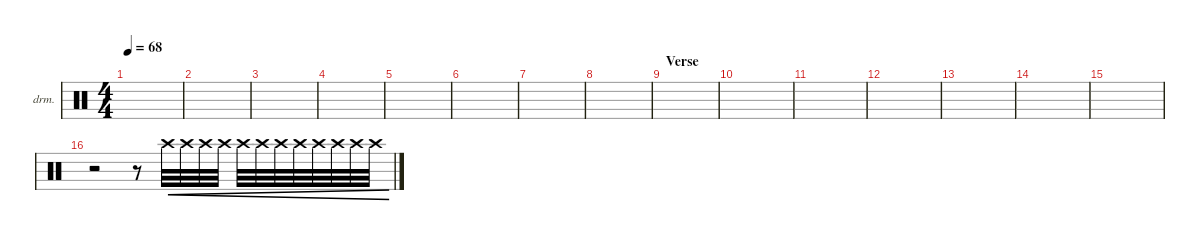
\defaultSystemsLayout 4
\hideDynamics
\bracketExtendMode nobrackets
\firstSystemTrackNameOrientation horizontal
\track ("Drumkit" "drm.") {defaultSystemsLayout 4 instrument percussion}
\staff {score}
\articulation defaults
\ts (4 4)
\tempo 68
\clef neutral
\ks c
|
|
|
|
|
|
|
|
\section ("" "Verse")
|
|
|
|
|
|
|
r.2 r.8 "Crash high (hit)".32{cre} "Crash high (hit)".32{cre} "Crash high (hit)".32{cre} "Crash high (hit)".32{cre} "Crash high (hit)".32{cre} "Crash high (hit)".32{cre} "Crash high (hit)".32{cre} "Crash high (hit)".32{cre} "Crash high (hit)".32{cre} "Crash high (hit)".32{cre} "Crash high (hit)".32{cre} "Crash high (hit)".32{cre}
